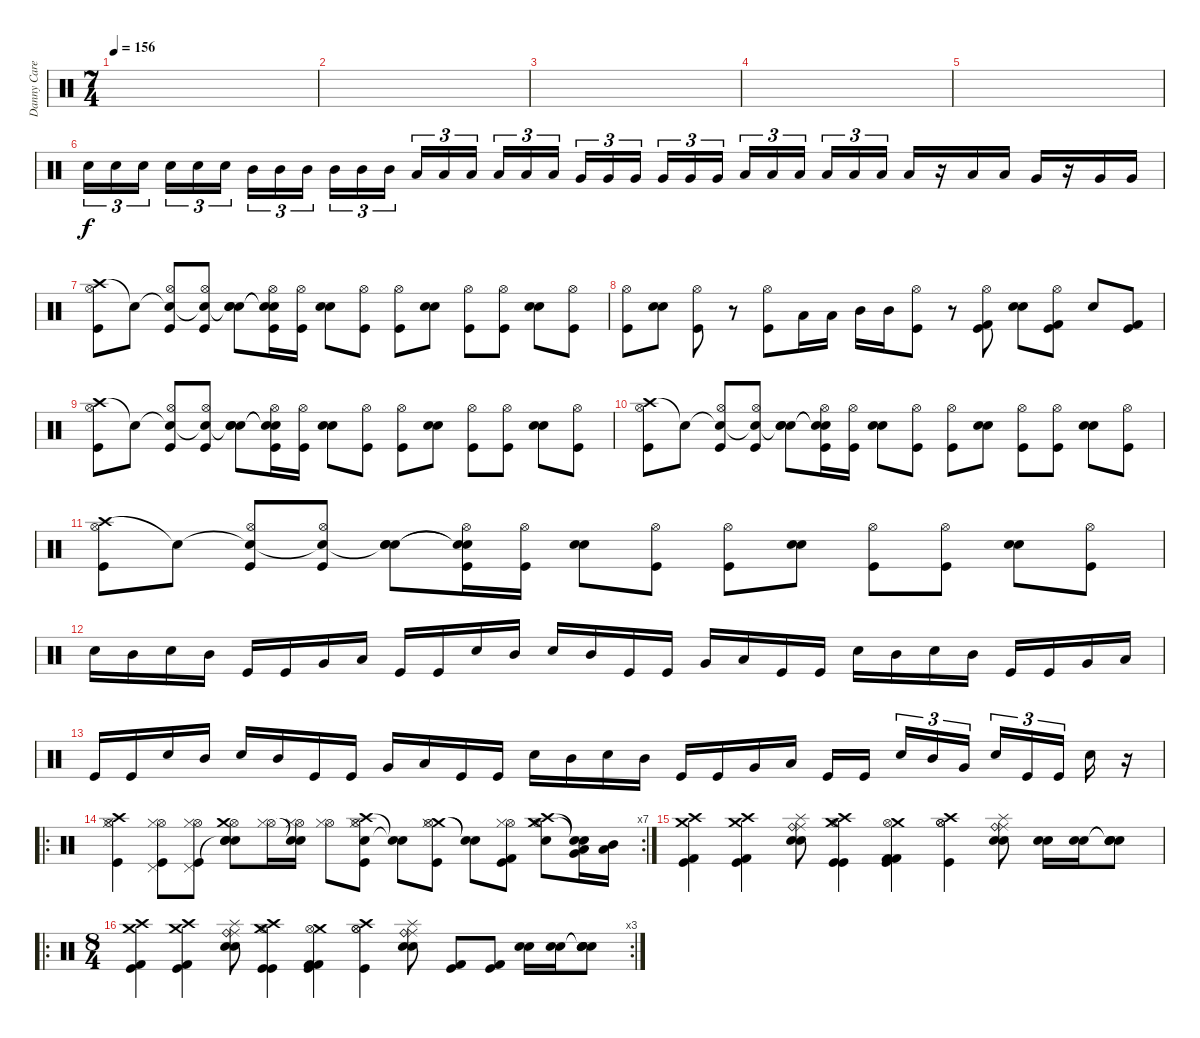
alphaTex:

\track ("Danny Carey " "Danny Care") {instrument percussion}
\staff {score}
\articulation defaults
\ts (7 4)
\tempo 156
\clef neutral
\ks c
|
|
|
|
|
"Snare (hit) 2".16{tu (3 2) volume 11} "Snare (hit) 2".16{tu (3 2)} "Snare (hit) 2".16{tu (3 2)} "Snare (hit) 2".16{tu (3 2)} "Snare (hit) 2".16{tu (3 2)} "Snare (hit) 2".16{tu (3 2)} "Mid Tom (hit)".16{tu (3 2)} "Mid Tom (hit)".16{tu (3 2)} "Mid Tom (hit)".16{tu (3 2)} "Mid Tom (hit)".16{tu (3 2)} "Mid Tom (hit)".16{tu (3 2)} "Mid Tom (hit)".16{tu (3 2)} "Low Tom (hit)".16{tu (3 2)} "Low Tom (hit)".16{tu (3 2)} "Low Tom (hit)".16{tu (3 2)} "Low Tom (hit)".16{tu (3 2)} "Low Tom (hit)".16{tu (3 2)} "Low Tom (hit)".16{tu (3 2)} "Very Low Tom (hit)".16{tu (3 2)} "Very Low Tom (hit)".16{tu (3 2)} "Very Low Tom (hit)".16{tu (3 2)} "Very Low Tom (hit)".16{tu (3 2)} "Very Low Tom (hit)".16{tu (3 2)} "Very Low Tom (hit)".16{tu (3 2)} "Low Floor Tom (hit)".16{tu (3 2)} "Low Floor Tom (hit)".16{tu (3 2)} "Low Floor Tom (hit)".16{tu (3 2)} "Low Floor Tom (hit)".16{tu (3 2)} "Low Floor Tom (hit)".16{tu (3 2)} "Low Floor Tom (hit)".16{tu (3 2)} "Low Floor Tom (hit)".16 r.16 "Low Floor Tom (hit)".16 "Low Floor Tom (hit)".16 "Very Low Tom (hit)".16 r.16 "Very Low Tom (hit)".16 "Very Low Tom (hit)".16 |
("Crash high (hit)" "Hi-Hat (open)" "Kick (hit)").8 "Snare (hit)"{t}.8 ("Snare (hit)"{t} "Hi-Hat (open)" "Kick (hit)").8 ("Snare (hit)"{t} "Hi-Hat (open)" "Kick (hit)").8 ("Snare (hit)"{t} "Snare (hit) 2" "Electric Snare (hit)").8 ("Snare (hit)"{t} "Snare (hit)"{t} "Hi-Hat (open)" "Kick (hit)").16 ("Hi-Hat (open)" "Kick (hit)").16 ("Snare (hit) 2" "Electric Snare (hit)").8 ("Hi-Hat (open)" "Kick (hit)").8 ("Hi-Hat (open)" "Kick (hit)").8 ("Snare (hit) 2" "Electric Snare (hit)").8 ("Hi-Hat (open)" "Kick (hit)").8 ("Hi-Hat (open)" "Kick (hit)").8 ("Snare (hit) 2" "Electric Snare (hit)").8 ("Hi-Hat (open)" "Kick (hit)").8 |
("Hi-Hat (open)" "Kick (hit)").8 ("Snare (hit) 2" "Electric Snare (hit)").8 ("Hi-Hat (open)" "Kick (hit)").8 r.8 ("Hi-Hat (open)" "Kick (hit)").8 "Low Tom (hit)".16 "Low Tom (hit)".16 "Mid Tom (hit)".16 "Mid Tom (hit)".16 ("Hi-Hat (open)" "Kick (hit)").8 r.8 ("Hi-Hat (open)" "Kick (hit) 2" "Kick (hit)").8 ("Electric Snare (hit)" "Snare (hit) 2").8 ("Hi-Hat (open)" "Kick (hit)" "Kick (hit) 2").8 "Electric Snare (hit)".8 ("Kick (hit)" "Kick (hit) 2").8 |
("Crash high (hit)" "Hi-Hat (open)" "Kick (hit)").8 "Snare (hit)"{t}.8 ("Snare (hit)"{t} "Hi-Hat (open)" "Kick (hit)").8 ("Snare (hit)"{t} "Hi-Hat (open)" "Kick (hit)").8 ("Snare (hit)"{t} "Snare (hit) 2" "Electric Snare (hit)").8 ("Snare (hit)"{t} "Snare (hit)"{t} "Hi-Hat (open)" "Kick (hit)").16 ("Hi-Hat (open)" "Kick (hit)").16 ("Snare (hit) 2" "Electric Snare (hit)").8 ("Hi-Hat (open)" "Kick (hit)").8 ("Hi-Hat (open)" "Kick (hit)").8 ("Snare (hit) 2" "Electric Snare (hit)").8 ("Hi-Hat (open)" "Kick (hit)").8 ("Hi-Hat (open)" "Kick (hit)").8 ("Snare (hit) 2" "Electric Snare (hit)").8 ("Hi-Hat (open)" "Kick (hit)").8 |
("Crash high (hit)" "Hi-Hat (open)" "Kick (hit)").8 "Snare (hit)"{t}.8 ("Snare (hit)"{t} "Hi-Hat (open)" "Kick (hit)").8 ("Snare (hit)"{t} "Hi-Hat (open)" "Kick (hit)").8 ("Snare (hit)"{t} "Snare (hit) 2" "Electric Snare (hit)").8 ("Snare (hit)"{t} "Snare (hit)"{t} "Hi-Hat (open)" "Kick (hit)").16 ("Hi-Hat (open)" "Kick (hit)").16 ("Snare (hit) 2" "Electric Snare (hit)").8 ("Hi-Hat (open)" "Kick (hit)").8 ("Hi-Hat (open)" "Kick (hit)").8 ("Snare (hit) 2" "Electric Snare (hit)").8 ("Hi-Hat (open)" "Kick (hit)").8 ("Hi-Hat (open)" "Kick (hit)").8 ("Snare (hit) 2" "Electric Snare (hit)").8 ("Hi-Hat (open)" "Kick (hit)").8 |
("Crash high (hit)" "Hi-Hat (open)" "Kick (hit)").8 "Snare (hit)"{t}.8 ("Snare (hit)"{t} "Hi-Hat (open)" "Kick (hit)").8 ("Snare (hit)"{t} "Hi-Hat (open)" "Kick (hit)").8 ("Snare (hit)"{t} "Snare (hit) 2" "Electric Snare (hit)").8 ("Snare (hit)"{t} "Snare (hit)"{t} "Hi-Hat (open)" "Kick (hit)").16 ("Hi-Hat (open)" "Kick (hit)").16 ("Snare (hit) 2" "Electric Snare (hit)").8 ("Hi-Hat (open)" "Kick (hit)").8 ("Hi-Hat (open)" "Kick (hit)").8 ("Snare (hit) 2" "Electric Snare (hit)").8 ("Hi-Hat (open)" "Kick (hit)").8 ("Hi-Hat (open)" "Kick (hit)").8 ("Snare (hit) 2" "Electric Snare (hit)").8 ("Hi-Hat (open)" "Kick (hit)").8 |
"Snare (hit) 2".16 "Mid Tom (hit)".16 "Snare (hit) 2".16 "Mid Tom (hit)".16 "Kick (hit)".16 "Kick (hit)".16 "Very Low Tom (hit)".16 "Low Tom (hit)".16 "Kick (hit)".16 "Kick (hit)".16 "Snare (hit) 2".16 "Mid Tom (hit)".16 "Snare (hit) 2".16 "Mid Tom (hit)".16 "Kick (hit)".16 "Kick (hit)".16 "Very Low Tom (hit)".16 "Low Tom (hit)".16 "Kick (hit)".16 "Kick (hit)".16 "Snare (hit) 2".16 "Mid Tom (hit)".16 "Snare (hit) 2".16 "Mid Tom (hit)".16 "Kick (hit)".16 "Kick (hit)".16 "Very Low Tom (hit)".16 "Low Tom (hit)".16 |
"Kick (hit)".16 "Kick (hit)".16 "Snare (hit) 2".16 "Mid Tom (hit)".16 "Snare (hit) 2".16 "Mid Tom (hit)".16 "Kick (hit)".16 "Kick (hit)".16 "Very Low Tom (hit)".16 "Low Tom (hit)".16 "Kick (hit)".16 "Kick (hit)".16 "Snare (hit) 2".16 "Mid Tom (hit)".16 "Snare (hit) 2".16 "Mid Tom (hit)".16 "Kick (hit)".16 "Kick (hit)".16 "Very Low Tom (hit)".16 "Low Tom (hit)".16 "Kick (hit)".16 "Kick (hit)".16 "Snare (hit) 2".16{tu (3 2)} "Mid Tom (hit)".16{tu (3 2)} "Very Low Tom (hit)".16{tu (3 2)} "Snare (hit) 2".16{tu (3 2)} "Kick (hit)".16{tu (3 2)} "Kick (hit)".16{tu (3 2)} "Snare (hit) 2".16 r.16 |
\ro
\rc 7
("Crash high (hit)" "Hi-Hat (open)" "Kick (hit)" "Hi-Hat (closed)").4 ("Hi-Hat (open)" "Kick (hit)" "Pedal Hi-Hat (hit)" "Hi-Hat (closed)").8 ("Hi-Hat (open)" "Kick (hit)" "Pedal Hi-Hat (hit)" "Hi-Hat (closed)").8 ("Hi-Hat (open)" "Crash medium (hit)" "Snare (hit)"{t} "Snare (hit) 2" "Electric Snare (hit)").8 ("Hi-Hat (open)" "Hi-Hat (closed)").16 ("Snare (hit)"{t} "Snare (hit)"{t} "Hi-Hat (open)" "Hi-Hat (closed)").16 ("Hi-Hat (open)" "Hi-Hat (closed)").8 ("Crash high (hit)" "Snare (hit) 2" "Hi-Hat (open)" "Kick (hit)" "Hi-Hat (closed)").8 ("Snare (hit)"{t} "Snare (hit)"{t}).8 ("Crash medium (hit)" "Hi-Hat (open)" "Kick (hit)" "Hi-Hat (closed)").8 ("Snare (hit)"{t} "Snare (hit)"{t}).8 ("Kick (hit) 2" "Hi-Hat (open)" "Kick (hit)" "Hi-Hat (closed)").8 ("Crash high (hit)" "Hi-Hat (open)" "Crash medium (hit)" "Snare (hit) 2").8 ("Snare (hit)"{t} "Snare (hit)"{t} "Very Low Tom (hit)" "Low Tom (hit)").16 ("Low Tom (hit)" "Mid Tom (hit)").16 |
("Crash medium (hit)" "Crash high (hit)" "Kick (hit) 2" "Kick (hit)").4 ("Crash medium (hit)" "Crash high (hit)" "Kick (hit) 2" "Kick (hit)").4 ("Ride (middle)" "Ride (bell)" "Splash (hit)" "Snare (hit) 2" "Electric Snare (hit)").8 ("Crash medium (hit)" "Crash high (hit)" "Hi-Hat (open)" "Kick (hit)" "Kick (hit)").4 ("Crash medium (hit)" "Hi-Hat (open)" "Kick (hit) 2" "Kick (hit) 2" "Kick (hit)").4 ("Crash high (hit)" "Hi-Hat (open)" "Hi-Hat (open)" "Kick (hit)").4 ("Ride (middle)" "Ride (bell)" "Splash (hit)" "Snare (hit) 2" "Electric Snare (hit)").8 ("Snare (hit) 2" "Electric Snare (hit)").16 ("Snare (hit) 2" "Electric Snare (hit)").16 ("Snare (hit)"{t} "Snare (hit)"{t} "Snare (hit) 2" "Electric Snare (hit)").8 |
\ro
\rc 3
\ts (8 4)
("Crash medium (hit)" "Crash high (hit)" "Kick (hit) 2" "Kick (hit)").4 ("Crash medium (hit)" "Crash high (hit)" "Kick (hit) 2" "Kick (hit)").4 ("Ride (middle)" "Ride (bell)" "Splash (hit)" "Snare (hit) 2" "Electric Snare (hit)").8 ("Crash medium (hit)" "Crash high (hit)" "Hi-Hat (open)" "Kick (hit)" "Kick (hit)").4 ("Crash medium (hit)" "Hi-Hat (open)" "Kick (hit) 2" "Kick (hit) 2" "Kick (hit)").4 ("Crash high (hit)" "Hi-Hat (open)" "Hi-Hat (open)" "Kick (hit)").4 ("Ride (middle)" "Ride (bell)" "Splash (hit)" "Snare (hit) 2" "Electric Snare (hit)").8 ("Kick (hit) 2" "Kick (hit)").8 ("Kick (hit) 2" "Kick (hit)").8 ("Snare (hit) 2" "Electric Snare (hit)").16 ("Snare (hit) 2" "Electric Snare (hit)").16 ("Snare (hit)"{t} "Snare (hit)"{t} "Snare (hit) 2" "Electric Snare (hit)").8
